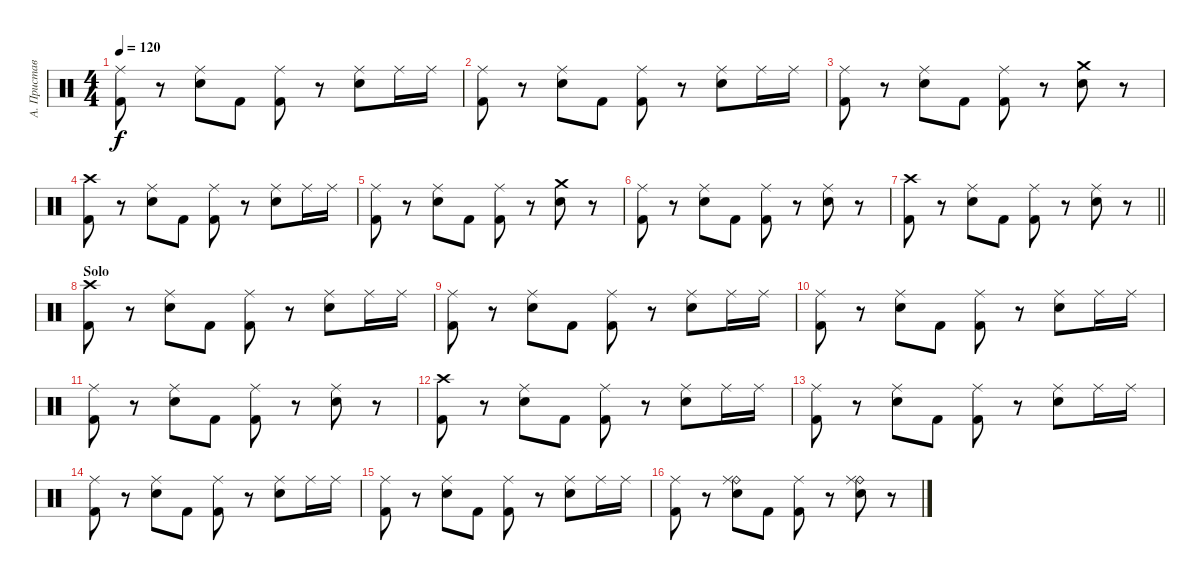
\track ("А. Приставка" "А. Пристав") {instrument percussion}
\staff {score}
\articulation defaults
\ts (4 4)
\tempo 120
\clef neutral
\ks c
("Ride (middle)" "Kick (hit) 2").8{dy f} r.8 ("Ride (middle)" "Electric Snare (hit)").8 "Kick (hit) 2".8 ("Ride (middle)" "Kick (hit) 2").8 r.8 ("Ride (middle)" "Electric Snare (hit)").8 "Ride (middle)".16 "Ride (middle)".16 |
("Ride (middle)" "Kick (hit) 2").8 r.8 ("Ride (middle)" "Electric Snare (hit)").8 "Kick (hit) 2".8 ("Ride (middle)" "Kick (hit) 2").8 r.8 ("Ride (middle)" "Electric Snare (hit)").8 "Ride (middle)".16 "Ride (middle)".16 |
("Ride (middle)" "Kick (hit) 2").8 r.8 ("Ride (middle)" "Electric Snare (hit)").8 "Kick (hit) 2".8 ("Ride (middle)" "Kick (hit) 2").8 r.8 ("Crash medium (hit)" "Electric Snare (hit)").8 r.8 |
("Crash high (hit)" "Kick (hit) 2").8 r.8 ("Ride (middle)" "Electric Snare (hit)").8 "Kick (hit) 2".8 ("Ride (middle)" "Kick (hit) 2").8 r.8 ("Ride (middle)" "Electric Snare (hit)").8 "Ride (middle)".16 "Ride (middle)".16 |
("Ride (middle)" "Kick (hit) 2").8 r.8 ("Ride (middle)" "Electric Snare (hit)").8 "Kick (hit) 2".8 ("Ride (middle)" "Kick (hit) 2").8 r.8 ("Crash medium (hit)" "Electric Snare (hit)").8 r.8 |
("Ride (middle)" "Kick (hit) 2").8 r.8 ("Ride (middle)" "Electric Snare (hit)").8 "Kick (hit) 2".8 ("Ride (middle)" "Kick (hit) 2").8 r.8 ("Ride (middle)" "Electric Snare (hit)").8 r.8 |
\barLineRight lightlight
("Crash high (hit)" "Kick (hit) 2").8 r.8 ("Ride (middle)" "Electric Snare (hit)").8 "Kick (hit) 2".8 ("Ride (middle)" "Kick (hit) 2").8 r.8 ("Ride (middle)" "Electric Snare (hit)").8 r.8 |
\section ("" "Solo")
("Crash high (hit)" "Kick (hit) 2").8 r.8 ("Ride (middle)" "Electric Snare (hit)").8 "Kick (hit) 2".8 ("Ride (middle)" "Kick (hit) 2").8 r.8 ("Ride (middle)" "Electric Snare (hit)").8 "Ride (middle)".16 "Ride (middle)".16 |
("Ride (middle)" "Kick (hit) 2").8 r.8 ("Ride (middle)" "Electric Snare (hit)").8 "Kick (hit) 2".8 ("Ride (middle)" "Kick (hit) 2").8 r.8 ("Ride (middle)" "Electric Snare (hit)").8 "Ride (middle)".16 "Ride (middle)".16 |
("Ride (middle)" "Kick (hit) 2").8 r.8 ("Ride (middle)" "Electric Snare (hit)").8 "Kick (hit) 2".8 ("Ride (middle)" "Kick (hit) 2").8 r.8 ("Ride (middle)" "Electric Snare (hit)").8 "Ride (middle)".16 "Ride (middle)".16 |
("Ride (middle)" "Kick (hit) 2").8 r.8 ("Ride (middle)" "Electric Snare (hit)").8 "Kick (hit) 2".8 ("Ride (middle)" "Kick (hit) 2").8 r.8 ("Ride (middle)" "Electric Snare (hit)").8 r.8 |
("Crash high (hit)" "Kick (hit) 2").8 r.8 ("Ride (middle)" "Electric Snare (hit)").8 "Kick (hit) 2".8 ("Ride (middle)" "Kick (hit) 2").8 r.8 ("Ride (middle)" "Electric Snare (hit)").8 "Ride (middle)".16 "Ride (middle)".16 |
("Ride (middle)" "Kick (hit) 2").8 r.8 ("Ride (middle)" "Electric Snare (hit)").8 "Kick (hit) 2".8 ("Ride (middle)" "Kick (hit) 2").8 r.8 ("Ride (middle)" "Electric Snare (hit)").8 "Ride (middle)".16 "Ride (middle)".16 |
("Ride (middle)" "Kick (hit) 2").8 r.8 ("Ride (middle)" "Electric Snare (hit)").8 "Kick (hit) 2".8 ("Ride (middle)" "Kick (hit) 2").8 r.8 ("Ride (middle)" "Electric Snare (hit)").8 "Ride (middle)".16 "Ride (middle)".16 |
("Ride (middle)" "Kick (hit) 2").8 r.8 ("Ride (middle)" "Electric Snare (hit)").8 "Kick (hit) 2".8 ("Ride (middle)" "Kick (hit) 2").8 r.8 ("Ride (middle)" "Electric Snare (hit)").8 "Ride (middle)".16 "Ride (middle)".16 |
("Ride (middle)" "Kick (hit) 2").8 r.8 ("Ride (bell)" "Ride (middle)" "Electric Snare (hit)").8 "Kick (hit) 2".8 ("Ride (middle)" "Kick (hit) 2").8 r.8 ("Ride (bell)" "Ride (middle)" "Electric Snare (hit)").8 r.8
